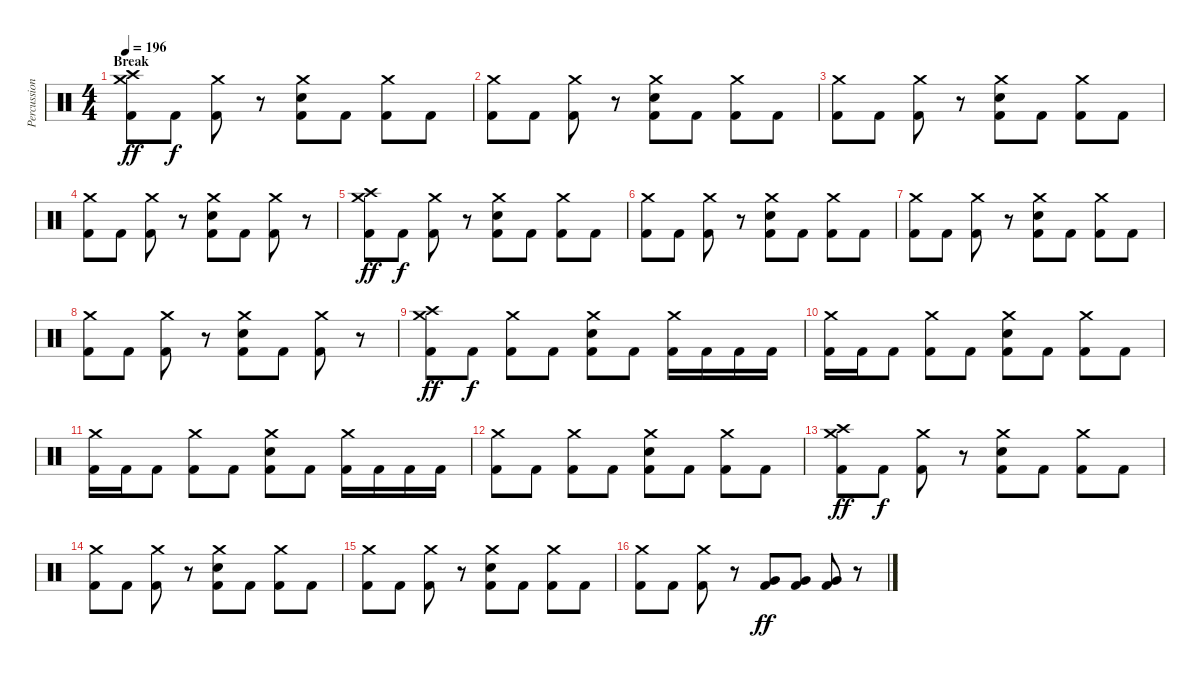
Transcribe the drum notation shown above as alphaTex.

\track ("Percussions" "Percussion") {instrument percussion}
\staff {score}
\articulation defaults
\ts (4 4)
\section ("" "Break")
\tempo 196
\clef neutral
\ks c
("Crash high (hit)" "Crash medium (hit)" "Kick (hit) 2").8{dy ff} "Kick (hit) 2".8{dy f} ("Crash medium (hit)" "Kick (hit) 2").8 r.8 ("Crash medium (hit)" "Electric Snare (hit)" "Kick (hit) 2").8 "Kick (hit) 2".8 ("Crash medium (hit)" "Kick (hit) 2").8 "Kick (hit) 2".8 |
("Crash medium (hit)" "Kick (hit) 2").8 "Kick (hit) 2".8 ("Crash medium (hit)" "Kick (hit) 2").8 r.8 ("Crash medium (hit)" "Electric Snare (hit)" "Kick (hit) 2").8 "Kick (hit) 2".8 ("Crash medium (hit)" "Kick (hit) 2").8 "Kick (hit) 2".8 |
("Crash medium (hit)" "Kick (hit) 2").8 "Kick (hit) 2".8 ("Crash medium (hit)" "Kick (hit) 2").8 r.8 ("Crash medium (hit)" "Electric Snare (hit)" "Kick (hit) 2").8 "Kick (hit) 2".8 ("Crash medium (hit)" "Kick (hit) 2").8 "Kick (hit) 2".8 |
("Crash medium (hit)" "Kick (hit) 2").8 "Kick (hit) 2".8 ("Crash medium (hit)" "Kick (hit) 2").8 r.8 ("Crash medium (hit)" "Electric Snare (hit)" "Kick (hit) 2").8 "Kick (hit) 2".8 ("Crash medium (hit)" "Kick (hit) 2").8 r.8 |
("Crash high (hit)" "Crash medium (hit)" "Kick (hit) 2").8{dy ff} "Kick (hit) 2".8{dy f} ("Crash medium (hit)" "Kick (hit) 2").8 r.8 ("Crash medium (hit)" "Electric Snare (hit)" "Kick (hit) 2").8 "Kick (hit) 2".8 ("Crash medium (hit)" "Kick (hit) 2").8 "Kick (hit) 2".8 |
("Crash medium (hit)" "Kick (hit) 2").8 "Kick (hit) 2".8 ("Crash medium (hit)" "Kick (hit) 2").8 r.8 ("Crash medium (hit)" "Electric Snare (hit)" "Kick (hit) 2").8 "Kick (hit) 2".8 ("Crash medium (hit)" "Kick (hit) 2").8 "Kick (hit) 2".8 |
("Crash medium (hit)" "Kick (hit) 2").8 "Kick (hit) 2".8 ("Crash medium (hit)" "Kick (hit) 2").8 r.8 ("Crash medium (hit)" "Electric Snare (hit)" "Kick (hit) 2").8 "Kick (hit) 2".8 ("Crash medium (hit)" "Kick (hit) 2").8 "Kick (hit) 2".8 |
("Crash medium (hit)" "Kick (hit) 2").8 "Kick (hit) 2".8 ("Crash medium (hit)" "Kick (hit) 2").8 r.8 ("Crash medium (hit)" "Electric Snare (hit)" "Kick (hit) 2").8 "Kick (hit) 2".8 ("Crash medium (hit)" "Kick (hit) 2").8 r.8 |
("Crash high (hit)" "Crash medium (hit)" "Kick (hit) 2").8{dy ff} "Kick (hit) 2".8{dy f} ("Crash medium (hit)" "Kick (hit) 2").8 "Kick (hit) 2".8 ("Crash medium (hit)" "Electric Snare (hit)" "Kick (hit) 2").8 "Kick (hit) 2".8 ("Crash medium (hit)" "Kick (hit) 2").16 "Kick (hit) 2".16 "Kick (hit) 2".16 "Kick (hit) 2".16 |
("Crash medium (hit)" "Kick (hit) 2").16 "Kick (hit) 2".16 "Kick (hit) 2".8 ("Crash medium (hit)" "Kick (hit) 2").8 "Kick (hit) 2".8 ("Crash medium (hit)" "Electric Snare (hit)" "Kick (hit) 2").8 "Kick (hit) 2".8 ("Crash medium (hit)" "Kick (hit) 2").8 "Kick (hit) 2".8 |
("Crash medium (hit)" "Kick (hit) 2").16 "Kick (hit) 2".16 "Kick (hit) 2".8 ("Crash medium (hit)" "Kick (hit) 2").8 "Kick (hit) 2".8 ("Crash medium (hit)" "Electric Snare (hit)" "Kick (hit) 2").8 "Kick (hit) 2".8 ("Crash medium (hit)" "Kick (hit) 2").16 "Kick (hit) 2".16 "Kick (hit) 2".16 "Kick (hit) 2".16 |
("Crash medium (hit)" "Kick (hit) 2").8 "Kick (hit) 2".8 ("Crash medium (hit)" "Kick (hit) 2").8 "Kick (hit) 2".8 ("Crash medium (hit)" "Electric Snare (hit)" "Kick (hit) 2").8 "Kick (hit) 2".8 ("Crash medium (hit)" "Kick (hit) 2").8 "Kick (hit) 2".8 |
("Crash high (hit)" "Crash medium (hit)" "Kick (hit) 2").8{dy ff} "Kick (hit) 2".8{dy f} ("Crash medium (hit)" "Kick (hit) 2").8 r.8 ("Crash medium (hit)" "Electric Snare (hit)" "Kick (hit) 2").8 "Kick (hit) 2".8 ("Crash medium (hit)" "Kick (hit) 2").8 "Kick (hit) 2".8 |
("Crash medium (hit)" "Kick (hit) 2").8 "Kick (hit) 2".8 ("Crash medium (hit)" "Kick (hit) 2").8 r.8 ("Crash medium (hit)" "Electric Snare (hit)" "Kick (hit) 2").8 "Kick (hit) 2".8 ("Crash medium (hit)" "Kick (hit) 2").8 "Kick (hit) 2".8 |
("Crash medium (hit)" "Kick (hit) 2").8 "Kick (hit) 2".8 ("Crash medium (hit)" "Kick (hit) 2").8 r.8 ("Crash medium (hit)" "Electric Snare (hit)" "Kick (hit) 2").8 "Kick (hit) 2".8 ("Crash medium (hit)" "Kick (hit) 2").8 "Kick (hit) 2".8 |
("Crash medium (hit)" "Kick (hit) 2").8 "Kick (hit) 2".8 ("Crash medium (hit)" "Kick (hit) 2").8 r.8 ("Very Low Tom (hit)" "Kick (hit) 2").8{dy ff} ("Very Low Tom (hit)" "Kick (hit) 2").8 ("Very Low Tom (hit)" "Kick (hit) 2").8 r.8
